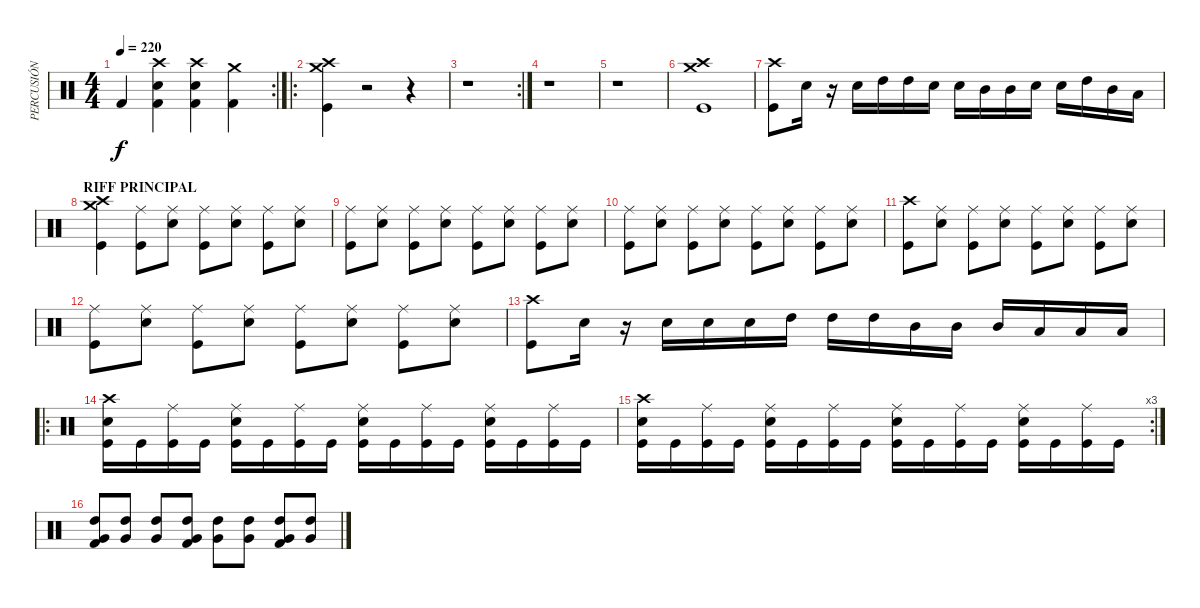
\track ("PERCUSIÓN" "PERCUSIÓN") {instrument percussion}
\staff {score}
\articulation defaults
\rc 2
\ts (4 4)
\tempo 220
\clef neutral
\ks c "Kick (hit) 2".4{dy f}
("Snare (hit) 2" "Crash high (hit)" "Kick (hit) 2").4 ("Snare (hit) 2" "Crash high (hit)" "Kick (hit) 2").4 ("Crash medium (hit)" "Kick (hit) 2").4 |
\ro
("Crash medium (hit)" "Crash high (hit)" "Kick (hit)").4 r.2 r.4 |
\rc 2
r.1 |
r.1 |
r.1 |
("Crash medium (hit)" "Kick (hit)" "Crash high (hit)").1 |
("Crash high (hit)" "Kick (hit)").8 "Snare (hit) 2".16 r.16 "Snare (hit) 2".16 "High Tom (hit)".16 "High Tom (hit)".16 "Snare (hit) 2".16 "Snare (hit) 2".16 "Mid Tom (hit)".16 "Mid Tom (hit)".16 "Snare (hit) 2".16 "Snare (hit) 2".16 "High Tom (hit)".16 "Mid Tom (hit)".16 "Low Tom (hit)".16 |
\section ("" "RIFF PRINCIPAL")
("Crash medium (hit)" "Crash high (hit)" "Kick (hit)").4 ("Ride (middle)" "Kick (hit)").8 ("Ride (middle)" "Snare (hit) 2").8 ("Ride (middle)" "Kick (hit)").8 ("Ride (middle)" "Snare (hit) 2").8 ("Ride (middle)" "Kick (hit)").8 ("Ride (middle)" "Snare (hit) 2").8 |
("Ride (middle)" "Kick (hit)").8 ("Ride (middle)" "Snare (hit) 2").8 ("Ride (middle)" "Kick (hit)").8 ("Ride (middle)" "Snare (hit) 2").8 ("Ride (middle)" "Kick (hit)").8 ("Ride (middle)" "Snare (hit) 2").8 ("Ride (middle)" "Kick (hit)").8 ("Ride (middle)" "Snare (hit) 2").8 |
("Ride (middle)" "Kick (hit)").8 ("Ride (middle)" "Snare (hit) 2").8 ("Ride (middle)" "Kick (hit)").8 ("Ride (middle)" "Snare (hit) 2").8 ("Ride (middle)" "Kick (hit)").8 ("Ride (middle)" "Snare (hit) 2").8 ("Ride (middle)" "Kick (hit)").8 ("Ride (middle)" "Snare (hit) 2").8 |
("Crash high (hit)" "Kick (hit)").8 ("Ride (middle)" "Snare (hit) 2").8 ("Ride (middle)" "Kick (hit)").8 ("Ride (middle)" "Snare (hit) 2").8 ("Ride (middle)" "Kick (hit)").8 ("Ride (middle)" "Snare (hit) 2").8 ("Ride (middle)" "Kick (hit)").8 ("Ride (middle)" "Snare (hit) 2").8 |
("Ride (middle)" "Kick (hit)").8 ("Ride (middle)" "Snare (hit) 2").8 ("Ride (middle)" "Kick (hit)").8 ("Ride (middle)" "Snare (hit) 2").8 ("Ride (middle)" "Kick (hit)").8 ("Ride (middle)" "Snare (hit) 2").8 ("Ride (middle)" "Kick (hit)").8 ("Ride (middle)" "Snare (hit) 2").8 |
("Crash high (hit)" "Kick (hit)").8 "Snare (hit) 2".16 r.16 "Snare (hit) 2".16 "Snare (hit) 2".16 "Snare (hit) 2".16 "High Tom (hit)".16 "High Tom (hit)".16 "High Tom (hit)".16 "Mid Tom (hit)".16 "Mid Tom (hit)".16 "Mid Tom (hit)".16 "Low Tom (hit)".16 "Low Tom (hit)".16 "Low Tom (hit)".16 |
\ro
("Crash high (hit)" "Snare (hit) 2" "Kick (hit)").16 "Kick (hit)".16 ("Ride (middle)" "Kick (hit)").16 "Kick (hit)".16 ("Ride (middle)" "Snare (hit) 2" "Kick (hit)").16 "Kick (hit)".16 ("Ride (middle)" "Kick (hit)").16 "Kick (hit)".16 ("Ride (middle)" "Snare (hit) 2" "Kick (hit)").16 "Kick (hit)".16 ("Ride (middle)" "Kick (hit)").16 "Kick (hit)".16 ("Ride (middle)" "Snare (hit) 2" "Kick (hit)").16 "Kick (hit)".16 ("Ride (middle)" "Kick (hit)").16 "Kick (hit)".16 |
\rc 3
("Crash high (hit)" "Snare (hit) 2" "Kick (hit)").16 "Kick (hit)".16 ("Ride (middle)" "Kick (hit)").16 "Kick (hit)".16 ("Ride (middle)" "Snare (hit) 2" "Kick (hit)").16 "Kick (hit)".16 ("Ride (middle)" "Kick (hit)").16 "Kick (hit)".16 ("Ride (middle)" "Snare (hit) 2" "Kick (hit)").16 "Kick (hit)".16 ("Ride (middle)" "Kick (hit)").16 "Kick (hit)".16 ("Ride (middle)" "Snare (hit) 2" "Kick (hit)").16 "Kick (hit)".16 ("Ride (middle)" "Kick (hit)").16 "Kick (hit)".16 |
("Kick (hit) 2" "Very Low Tom (hit)" "High Tom (hit)").8 ("High Tom (hit)" "Very Low Tom (hit)").8 ("Very Low Tom (hit)" "High Tom (hit)").8 ("Kick (hit) 2" "High Tom (hit)" "Very Low Tom (hit)").8 ("Very Low Tom (hit)" "High Tom (hit)").8 ("High Tom (hit)" "Very Low Tom (hit)").8 ("Kick (hit) 2" "Very Low Tom (hit)" "High Tom (hit)").8 ("High Tom (hit)" "Very Low Tom (hit)").8
